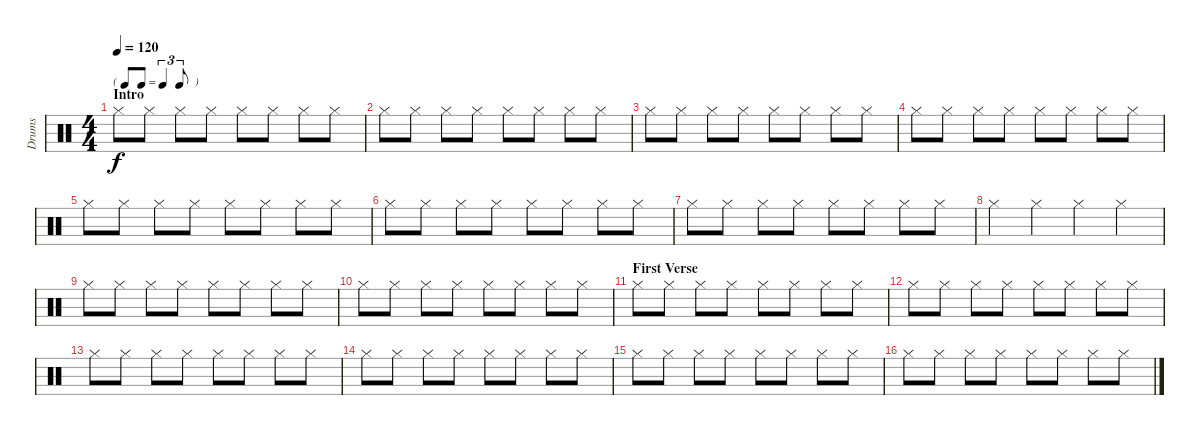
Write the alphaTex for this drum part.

\track ("Drums" "Drums") {instrument percussion}
\staff {score}
\articulation defaults
\ts (4 4)
\tf triplet8th
\section ("" "Intro")
\tempo 120
\clef neutral
\ks c "Hi-Hat (closed)".8{dy f} "Hi-Hat (closed)".8 "Hi-Hat (closed)".8 "Hi-Hat (closed)".8 "Hi-Hat (closed)".8 "Hi-Hat (closed)".8 "Hi-Hat (closed)".8 "Hi-Hat (closed)".8
|
"Hi-Hat (closed)".8 "Hi-Hat (closed)".8 "Hi-Hat (closed)".8 "Hi-Hat (closed)".8 "Hi-Hat (closed)".8 "Hi-Hat (closed)".8 "Hi-Hat (closed)".8 "Hi-Hat (closed)".8 |
"Hi-Hat (closed)".8 "Hi-Hat (closed)".8 "Hi-Hat (closed)".8 "Hi-Hat (closed)".8 "Hi-Hat (closed)".8 "Hi-Hat (closed)".8 "Hi-Hat (closed)".8 "Hi-Hat (closed)".8 |
"Hi-Hat (closed)".8 "Hi-Hat (closed)".8 "Hi-Hat (closed)".8 "Hi-Hat (closed)".8 "Hi-Hat (closed)".8 "Hi-Hat (closed)".8 "Hi-Hat (closed)".8 "Hi-Hat (closed)".8 |
"Hi-Hat (closed)".8 "Hi-Hat (closed)".8 "Hi-Hat (closed)".8 "Hi-Hat (closed)".8 "Hi-Hat (closed)".8 "Hi-Hat (closed)".8 "Hi-Hat (closed)".8 "Hi-Hat (closed)".8 |
"Hi-Hat (closed)".8 "Hi-Hat (closed)".8 "Hi-Hat (closed)".8 "Hi-Hat (closed)".8 "Hi-Hat (closed)".8 "Hi-Hat (closed)".8 "Hi-Hat (closed)".8 "Hi-Hat (closed)".8 |
"Hi-Hat (closed)".8 "Hi-Hat (closed)".8 "Hi-Hat (closed)".8 "Hi-Hat (closed)".8 "Hi-Hat (closed)".8 "Hi-Hat (closed)".8 "Hi-Hat (closed)".8 "Hi-Hat (closed)".8 |
"Hi-Hat (closed)".4 "Hi-Hat (closed)".4 "Hi-Hat (closed)".4 "Hi-Hat (closed)".4 |
"Hi-Hat (closed)".8 "Hi-Hat (closed)".8 "Hi-Hat (closed)".8 "Hi-Hat (closed)".8 "Hi-Hat (closed)".8 "Hi-Hat (closed)".8 "Hi-Hat (closed)".8 "Hi-Hat (closed)".8 |
"Hi-Hat (closed)".8 "Hi-Hat (closed)".8 "Hi-Hat (closed)".8 "Hi-Hat (closed)".8 "Hi-Hat (closed)".8 "Hi-Hat (closed)".8 "Hi-Hat (closed)".8 "Hi-Hat (closed)".8 |
\section ("" "First Verse")
"Hi-Hat (closed)".8 "Hi-Hat (closed)".8 "Hi-Hat (closed)".8 "Hi-Hat (closed)".8 "Hi-Hat (closed)".8 "Hi-Hat (closed)".8 "Hi-Hat (closed)".8 "Hi-Hat (closed)".8 |
"Hi-Hat (closed)".8 "Hi-Hat (closed)".8 "Hi-Hat (closed)".8 "Hi-Hat (closed)".8 "Hi-Hat (closed)".8 "Hi-Hat (closed)".8 "Hi-Hat (closed)".8 "Hi-Hat (closed)".8 |
"Hi-Hat (closed)".8 "Hi-Hat (closed)".8 "Hi-Hat (closed)".8 "Hi-Hat (closed)".8 "Hi-Hat (closed)".8 "Hi-Hat (closed)".8 "Hi-Hat (closed)".8 "Hi-Hat (closed)".8 |
"Hi-Hat (closed)".8 "Hi-Hat (closed)".8 "Hi-Hat (closed)".8 "Hi-Hat (closed)".8 "Hi-Hat (closed)".8 "Hi-Hat (closed)".8 "Hi-Hat (closed)".8 "Hi-Hat (closed)".8 |
"Hi-Hat (closed)".8 "Hi-Hat (closed)".8 "Hi-Hat (closed)".8 "Hi-Hat (closed)".8 "Hi-Hat (closed)".8 "Hi-Hat (closed)".8 "Hi-Hat (closed)".8 "Hi-Hat (closed)".8 |
"Hi-Hat (closed)".8 "Hi-Hat (closed)".8 "Hi-Hat (closed)".8 "Hi-Hat (closed)".8 "Hi-Hat (closed)".8 "Hi-Hat (closed)".8 "Hi-Hat (closed)".8 "Hi-Hat (closed)".8
